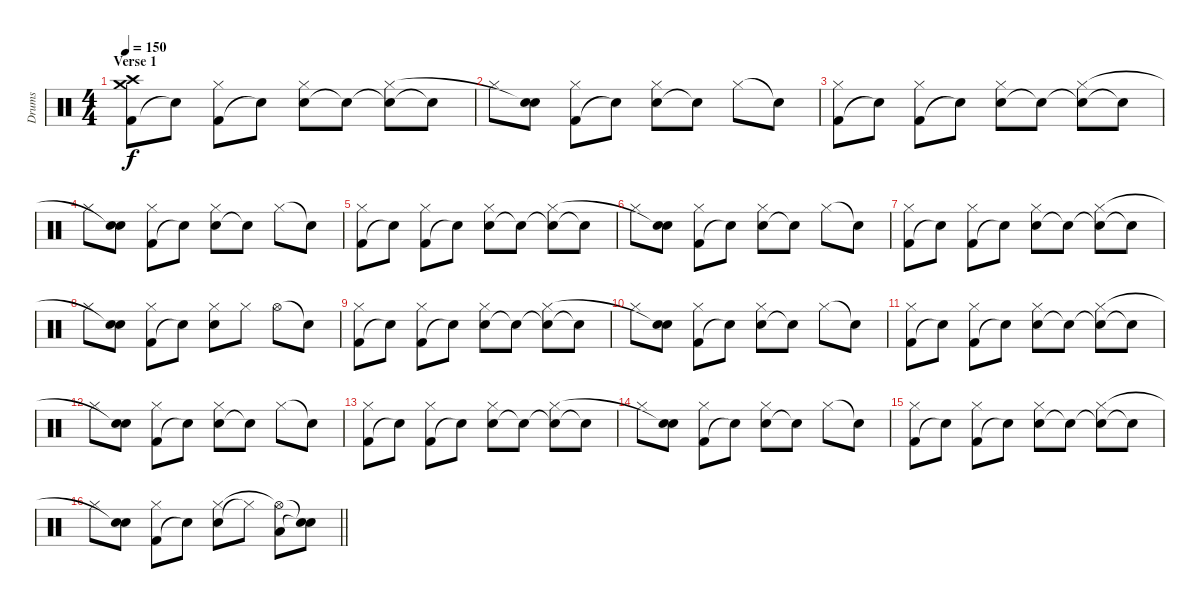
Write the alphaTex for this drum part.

\track ("Drums" "Drums") {instrument percussion}
\staff {score}
\articulation defaults
\ts (4 4)
\section ("" "Verse 1")
\tempo 150
\clef neutral
\ks c
("Kick (hit) 2" "Crash medium (hit)" "Crash high (hit)").8{dy f} "Snare (hit)"{t}.8 ("Kick (hit) 2" "Hi-Hat (closed)").8 "Snare (hit)"{t}.8 ("Electric Snare (hit)" "Hi-Hat (closed)").8 "Snare (hit)"{t}.8 ("Snare (hit)"{t} "Hi-Hat (closed)").8 "Snare (hit)"{t}.8 |
"Hi-Hat (closed)".8 ("Electric Snare (hit)" "Snare (hit)"{t}).8 ("Kick (hit) 2" "Hi-Hat (closed)").8 "Snare (hit)"{t}.8 ("Electric Snare (hit)" "Hi-Hat (closed)").8 "Snare (hit)"{t}.8 "Hi-Hat (closed)".8 "Snare (hit)"{t}.8 |
("Kick (hit) 2" "Hi-Hat (closed)").8 "Snare (hit)"{t}.8 ("Kick (hit) 2" "Hi-Hat (closed)").8 "Snare (hit)"{t}.8 ("Electric Snare (hit)" "Hi-Hat (closed)").8 "Snare (hit)"{t}.8 ("Snare (hit)"{t} "Hi-Hat (closed)").8 "Snare (hit)"{t}.8 |
"Hi-Hat (closed)".8 ("Electric Snare (hit)" "Snare (hit)"{t}).8 ("Kick (hit) 2" "Hi-Hat (closed)").8 "Snare (hit)"{t}.8 ("Electric Snare (hit)" "Hi-Hat (closed)").8 "Snare (hit)"{t}.8 "Hi-Hat (closed)".8 "Snare (hit)"{t}.8 |
("Kick (hit) 2" "Hi-Hat (closed)").8 "Snare (hit)"{t}.8 ("Kick (hit) 2" "Hi-Hat (closed)").8 "Snare (hit)"{t}.8 ("Electric Snare (hit)" "Hi-Hat (closed)").8 "Snare (hit)"{t}.8 ("Snare (hit)"{t} "Hi-Hat (closed)").8 "Snare (hit)"{t}.8 |
"Hi-Hat (closed)".8 ("Electric Snare (hit)" "Snare (hit)"{t}).8 ("Kick (hit) 2" "Hi-Hat (closed)").8 "Snare (hit)"{t}.8 ("Electric Snare (hit)" "Hi-Hat (closed)").8 "Snare (hit)"{t}.8 "Hi-Hat (closed)".8 "Snare (hit)"{t}.8 |
("Kick (hit) 2" "Hi-Hat (closed)").8 "Snare (hit)"{t}.8 ("Kick (hit) 2" "Hi-Hat (closed)").8 "Snare (hit)"{t}.8 ("Electric Snare (hit)" "Hi-Hat (closed)").8 "Snare (hit)"{t}.8 ("Snare (hit)"{t} "Hi-Hat (closed)").8 "Snare (hit)"{t}.8 |
"Hi-Hat (closed)".8 ("Electric Snare (hit)" "Snare (hit)"{t}).8 ("Kick (hit) 2" "Hi-Hat (closed)").8 "Snare (hit)"{t}.8 ("Electric Snare (hit)" "Hi-Hat (closed)").8 "Hi-Hat (closed)".8 "Hi-Hat (open)".8 "Snare (hit)"{t}.8 |
("Kick (hit) 2" "Hi-Hat (closed)").8 "Snare (hit)"{t}.8 ("Kick (hit) 2" "Hi-Hat (closed)").8 "Snare (hit)"{t}.8 ("Electric Snare (hit)" "Hi-Hat (closed)").8 "Snare (hit)"{t}.8 ("Snare (hit)"{t} "Hi-Hat (closed)").8 "Snare (hit)"{t}.8 |
"Hi-Hat (closed)".8 ("Electric Snare (hit)" "Snare (hit)"{t}).8 ("Kick (hit) 2" "Hi-Hat (closed)").8 "Snare (hit)"{t}.8 ("Electric Snare (hit)" "Hi-Hat (closed)").8 "Snare (hit)"{t}.8 "Hi-Hat (closed)".8 "Snare (hit)"{t}.8 |
("Kick (hit) 2" "Hi-Hat (closed)").8 "Snare (hit)"{t}.8 ("Kick (hit) 2" "Hi-Hat (closed)").8 "Snare (hit)"{t}.8 ("Electric Snare (hit)" "Hi-Hat (closed)").8 "Snare (hit)"{t}.8 ("Snare (hit)"{t} "Hi-Hat (closed)").8 "Snare (hit)"{t}.8 |
"Hi-Hat (closed)".8 ("Electric Snare (hit)" "Snare (hit)"{t}).8 ("Kick (hit) 2" "Hi-Hat (closed)").8 "Snare (hit)"{t}.8 ("Electric Snare (hit)" "Hi-Hat (closed)").8 "Snare (hit)"{t}.8 "Hi-Hat (closed)".8 "Snare (hit)"{t}.8 |
("Kick (hit) 2" "Hi-Hat (closed)").8 "Snare (hit)"{t}.8 ("Kick (hit) 2" "Hi-Hat (closed)").8 "Snare (hit)"{t}.8 ("Electric Snare (hit)" "Hi-Hat (closed)").8 "Snare (hit)"{t}.8 ("Snare (hit)"{t} "Hi-Hat (closed)").8 "Snare (hit)"{t}.8 |
"Hi-Hat (closed)".8 ("Electric Snare (hit)" "Snare (hit)"{t}).8 ("Kick (hit) 2" "Hi-Hat (closed)").8 "Snare (hit)"{t}.8 ("Electric Snare (hit)" "Hi-Hat (closed)").8 "Snare (hit)"{t}.8 "Hi-Hat (closed)".8 "Snare (hit)"{t}.8 |
("Kick (hit) 2" "Hi-Hat (closed)").8 "Snare (hit)"{t}.8 ("Kick (hit) 2" "Hi-Hat (closed)").8 "Snare (hit)"{t}.8 ("Electric Snare (hit)" "Hi-Hat (closed)").8 "Snare (hit)"{t}.8 ("Snare (hit)"{t} "Hi-Hat (closed)").8 "Snare (hit)"{t}.8 |
\barLineRight lightlight "Hi-Hat (closed)".8
("Electric Snare (hit)" "Snare (hit)"{t}).8 ("Kick (hit) 2" "Hi-Hat (closed)").8 "Snare (hit)"{t}.8 ("Electric Snare (hit)" "Hi-Hat (closed)").8 "Hi-Hat (closed)"{t}.8 ("Low Floor Tom (hit)" "Hi-Hat (open)"{t}).8 ("Snare (hit)"{t} "Snare (hit)"{t}).8
